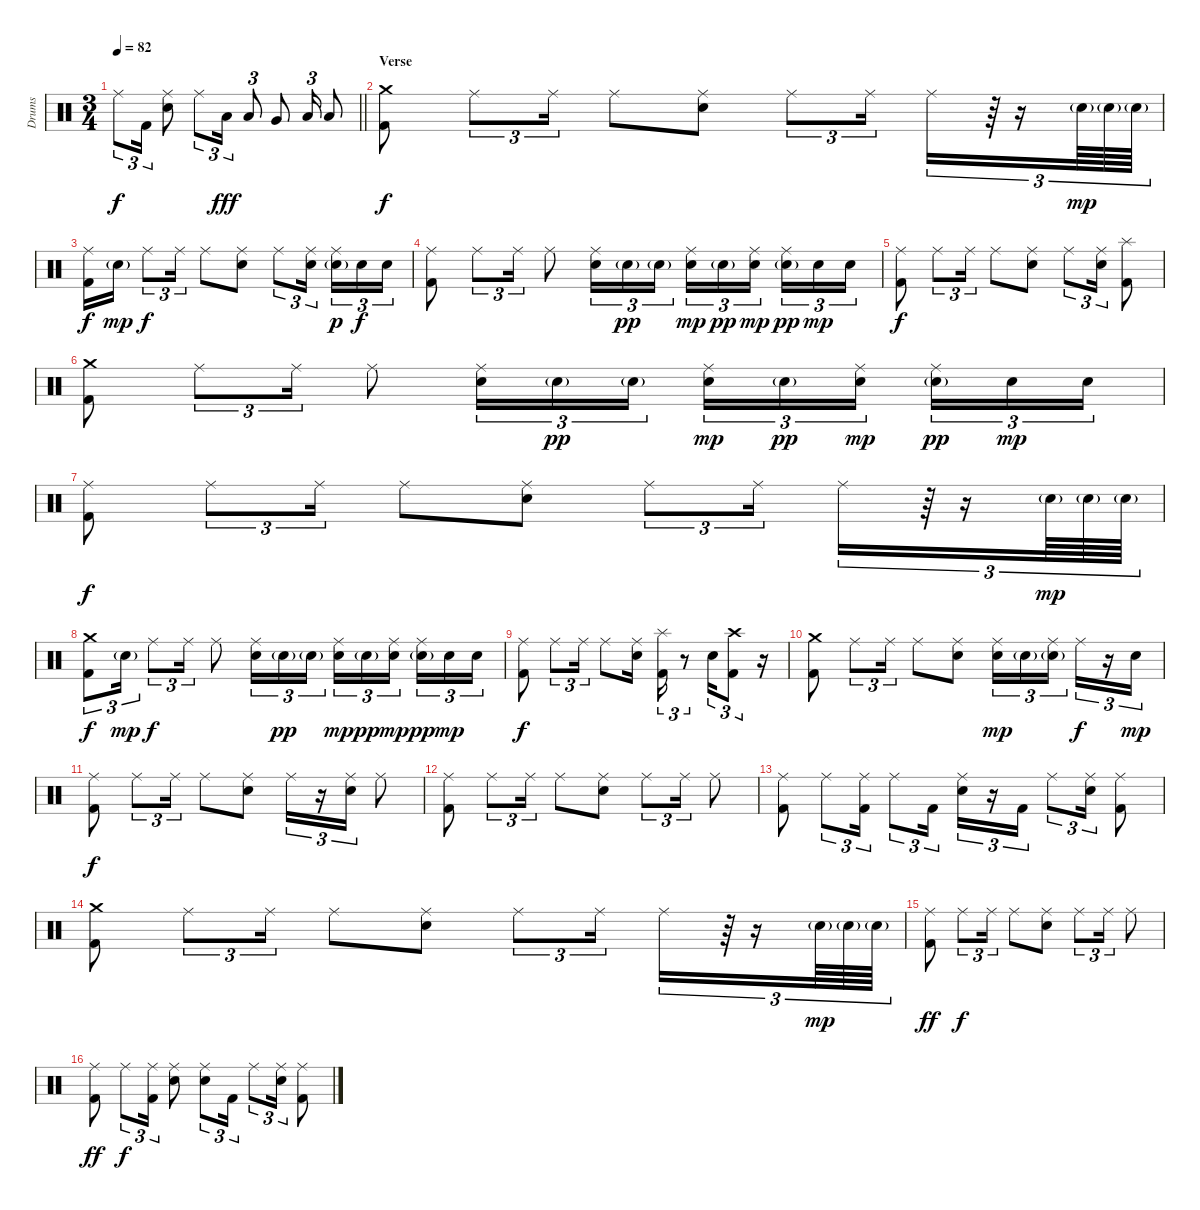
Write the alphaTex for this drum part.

\track ("Drums" "Drums") {instrument percussion}
\staff {score}
\articulation defaults
\ts (3 4)
\tempo 82
\clef neutral
\barLineRight lightlight
\ks c "Ride (middle)".8{tu (3 2) dy f} "Kick (hit) 2".16{tu (3 2)}
("Ride (middle)" "Electric Snare (hit)").8 "Ride (middle)".8{tu (3 2)} "Low Tom (hit)".16{tu (3 2) dy fff} "Low Tom (hit)".8{tu (3 2)} "Very Low Tom (hit)".8 "Low Floor Tom (hit)".16{tu (3 2)} "Low Floor Tom (hit)".8 |
\section ("" "Verse")
("Crash medium (hit)" "Kick (hit) 2").8{dy f} "Ride (middle)".8{tu (3 2)} "Ride (middle)".16{tu (3 2)} "Ride (middle)".8 ("Ride (middle)" "Electric Snare (hit)").8 "Ride (middle)".8{tu (3 2)} "Ride (middle)".16{tu (3 2)} "Ride (middle)".16{tu (3 2)} r.64{tu (3 2)} r.16{tu (3 2)} "Electric Snare (hit)"{g}.64{tu (3 2) dy mp} "Electric Snare (hit)"{g}.64{tu (3 2)} "Electric Snare (hit)"{g}.64{tu (3 2)} |
("Ride (middle)" "Kick (hit) 2").16{dy f} "Electric Snare (hit)"{g}.16{dy mp} "Ride (middle)".8{tu (3 2) dy f} "Ride (middle)".16{tu (3 2)} "Ride (middle)".8 ("Ride (middle)" "Electric Snare (hit)").8 "Ride (middle)".8{tu (3 2)} ("Ride (middle)" "Electric Snare (hit)").16{tu (3 2) beam splitsecondary} ("Ride (middle)" "Electric Snare (hit)"{g}).16{tu (3 2) dy p} "Electric Snare (hit)".16{tu (3 2) dy f} "Electric Snare (hit)".16{tu (3 2)} |
("Ride (middle)" "Kick (hit) 2").8 "Ride (middle)".8{tu (3 2)} "Ride (middle)".16{tu (3 2)} "Ride (middle)".8 ("Ride (middle)" "Electric Snare (hit)").16{tu (3 2)} "Electric Snare (hit)"{g}.16{tu (3 2) dy pp} "Electric Snare (hit)"{g}.16{tu (3 2)} ("Ride (middle)" "Electric Snare (hit)").16{tu (3 2) dy mp} "Electric Snare (hit)"{g}.16{tu (3 2) dy pp} ("Ride (middle)" "Electric Snare (hit)").16{tu (3 2) dy mp beam splitsecondary} ("Ride (middle)" "Electric Snare (hit)"{g}).16{tu (3 2) dy pp} "Electric Snare (hit)".16{tu (3 2) dy mp} "Electric Snare (hit)".16{tu (3 2)} |
("Ride (middle)" "Kick (hit) 2").8{dy f} "Ride (middle)".8{tu (3 2)} "Ride (middle)".16{tu (3 2)} "Ride (middle)".8 ("Ride (middle)" "Electric Snare (hit)").8 "Ride (middle)".8{tu (3 2)} ("Ride (middle)" "Electric Snare (hit)").16{tu (3 2)} ("Splash (hit)" "Kick (hit) 2").8 |
("Crash medium (hit)" "Kick (hit) 2").8 "Ride (middle)".8{tu (3 2)} "Ride (middle)".16{tu (3 2)} "Ride (middle)".8 ("Ride (middle)" "Electric Snare (hit)").16{tu (3 2)} "Electric Snare (hit)"{g}.16{tu (3 2) dy pp} "Electric Snare (hit)"{g}.16{tu (3 2)} ("Ride (middle)" "Electric Snare (hit)").16{tu (3 2) dy mp} "Electric Snare (hit)"{g}.16{tu (3 2) dy pp} ("Ride (middle)" "Electric Snare (hit)").16{tu (3 2) dy mp beam splitsecondary} ("Ride (middle)" "Electric Snare (hit)"{g}).16{tu (3 2) dy pp} "Electric Snare (hit)".16{tu (3 2) dy mp} "Electric Snare (hit)".16{tu (3 2)} |
("Ride (middle)" "Kick (hit) 2").8{dy f} "Ride (middle)".8{tu (3 2)} "Ride (middle)".16{tu (3 2)} "Ride (middle)".8 ("Ride (middle)" "Electric Snare (hit)").8 "Ride (middle)".8{tu (3 2)} "Ride (middle)".16{tu (3 2)} "Ride (middle)".16{tu (3 2)} r.64{tu (3 2)} r.16{tu (3 2)} "Electric Snare (hit)"{g}.64{tu (3 2) dy mp} "Electric Snare (hit)"{g}.64{tu (3 2)} "Electric Snare (hit)"{g}.64{tu (3 2)} |
("Crash medium (hit)" "Kick (hit) 2").8{tu (3 2) dy f} "Electric Snare (hit)"{g}.16{tu (3 2) dy mp} "Ride (middle)".8{tu (3 2) dy f} "Ride (middle)".16{tu (3 2)} "Ride (middle)".8 ("Ride (middle)" "Electric Snare (hit)").16{tu (3 2)} "Electric Snare (hit)"{g}.16{tu (3 2) dy pp} "Electric Snare (hit)"{g}.16{tu (3 2)} ("Ride (middle)" "Electric Snare (hit)").16{tu (3 2) dy mp} "Electric Snare (hit)"{g}.16{tu (3 2) dy pp} ("Ride (middle)" "Electric Snare (hit)").16{tu (3 2) dy mp beam splitsecondary} ("Ride (middle)" "Electric Snare (hit)"{g}).16{tu (3 2) dy pp} "Electric Snare (hit)".16{tu (3 2) dy mp} "Electric Snare (hit)".16{tu (3 2)} |
("Ride (middle)" "Kick (hit) 2").8{dy f} "Ride (middle)".8{tu (3 2)} "Ride (middle)".16{tu (3 2)} "Ride (middle)".8 ("Ride (middle)" "Electric Snare (hit)").16 ("Splash (hit)" "Kick (hit) 2").16{tu (3 2)} r.8{tu (3 2)} "Electric Snare (hit)".16{tu (3 2)} ("Crash high (hit)" "Kick (hit) 2").8{tu (3 2)} r.16 |
("Crash medium (hit)" "Kick (hit) 2").8 "Ride (middle)".8{tu (3 2)} "Ride (middle)".16{tu (3 2)} "Ride (middle)".8 ("Ride (middle)" "Electric Snare (hit)").8 ("Ride (middle)" "Electric Snare (hit)").16{tu (3 2) dy mp} "Electric Snare (hit)"{g}.16{tu (3 2)} ("Ride (middle)" "Electric Snare (hit)"{g}).16{tu (3 2) beam splitsecondary} "Ride (middle)".16{tu (3 2) dy f} r.16{tu (3 2)} "Electric Snare (hit)".16{tu (3 2) dy mp} |
("Ride (middle)" "Kick (hit) 2").8{dy f} "Ride (middle)".8{tu (3 2)} "Ride (middle)".16{tu (3 2)} "Ride (middle)".8 ("Ride (middle)" "Electric Snare (hit)").8 "Ride (middle)".16{tu (3 2)} r.16{tu (3 2)} ("Ride (middle)" "Electric Snare (hit)").16{tu (3 2)} "Ride (middle)".8 |
("Ride (middle)" "Kick (hit) 2").8 "Ride (middle)".8{tu (3 2)} "Ride (middle)".16{tu (3 2)} "Ride (middle)".8 ("Ride (middle)" "Electric Snare (hit)").8 "Ride (middle)".8{tu (3 2)} "Ride (middle)".16{tu (3 2)} "Ride (middle)".8 |
("Ride (middle)" "Kick (hit) 2").8 "Ride (middle)".8{tu (3 2)} ("Ride (middle)" "Kick (hit) 2").16{tu (3 2)} "Ride (middle)".8{tu (3 2)} "Kick (hit) 2".16{tu (3 2)} ("Ride (middle)" "Electric Snare (hit)").16{tu (3 2)} r.16{tu (3 2)} "Kick (hit) 2".16{tu (3 2)} "Ride (middle)".8{tu (3 2)} ("Ride (middle)" "Electric Snare (hit)").16{tu (3 2)} ("Ride (middle)" "Kick (hit) 2").8 |
("Crash medium (hit)" "Kick (hit) 2").8 "Ride (middle)".8{tu (3 2)} "Ride (middle)".16{tu (3 2)} "Ride (middle)".8 ("Ride (middle)" "Electric Snare (hit)").8 "Ride (middle)".8{tu (3 2)} "Ride (middle)".16{tu (3 2)} "Ride (middle)".16{tu (3 2)} r.64{tu (3 2)} r.16{tu (3 2)} "Electric Snare (hit)"{g}.64{tu (3 2) dy mp} "Electric Snare (hit)"{g}.64{tu (3 2)} "Electric Snare (hit)"{g}.64{tu (3 2)} |
("Ride (middle)" "Kick (hit) 2").8{dy ff} "Ride (middle)".8{tu (3 2) dy f} "Ride (middle)".16{tu (3 2)} "Ride (middle)".8 ("Ride (middle)" "Electric Snare (hit)").8 "Ride (middle)".8{tu (3 2)} "Ride (middle)".16{tu (3 2)} "Ride (middle)".8 |
("Ride (middle)" "Kick (hit) 2").8{dy ff} "Ride (middle)".8{tu (3 2) dy f} ("Ride (middle)" "Kick (hit) 2").16{tu (3 2)} ("Ride (middle)" "Electric Snare (hit)").8 ("Ride (middle)" "Electric Snare (hit)").8{tu (3 2)} "Kick (hit) 2".16{tu (3 2)} "Ride (middle)".8{tu (3 2)} ("Ride (middle)" "Electric Snare (hit)").16{tu (3 2)} ("Ride (middle)" "Kick (hit) 2").8
